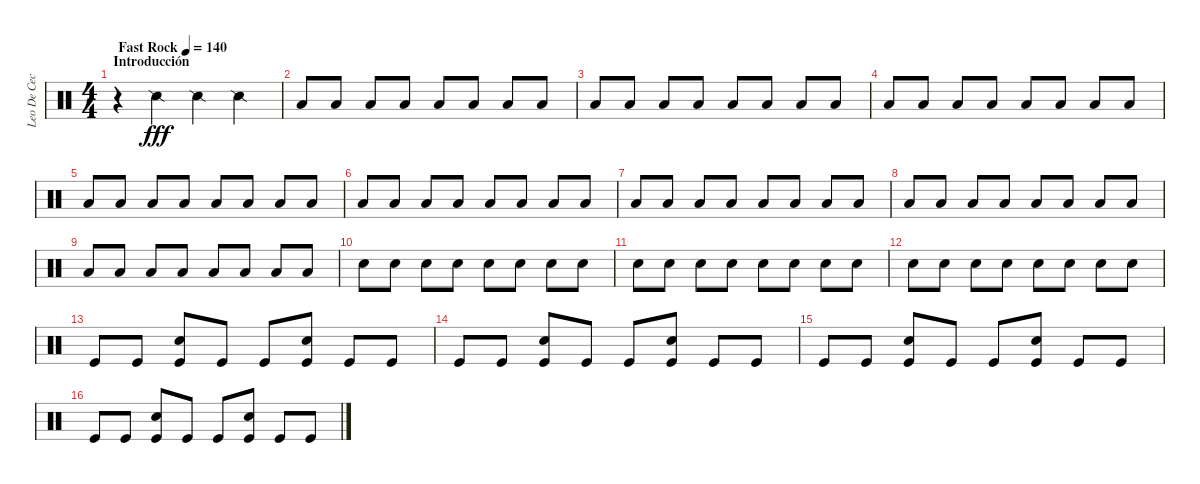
\track ("Leo De Cecco" "Leo De Cec") {instrument percussion}
\staff {score}
\articulation defaults
\ts (4 4)
\section ("" "Introducción")
\tempo (140 "Fast Rock")
\clef neutral
\ks c
r.4{dy fff} "Snare (side stick) 2".4 "Snare (side stick) 2".4 "Snare (side stick) 2".4 |
"Low Tom (hit)".8 "Low Tom (hit)".8 "Low Tom (hit)".8 "Low Tom (hit)".8 "Low Tom (hit)".8 "Low Tom (hit)".8 "Low Tom (hit)".8 "Low Tom (hit)".8 |
"Low Tom (hit)".8 "Low Tom (hit)".8 "Low Tom (hit)".8 "Low Tom (hit)".8 "Low Tom (hit)".8 "Low Tom (hit)".8 "Low Tom (hit)".8 "Low Tom (hit)".8 |
"Low Tom (hit)".8 "Low Tom (hit)".8 "Low Tom (hit)".8 "Low Tom (hit)".8 "Low Tom (hit)".8 "Low Tom (hit)".8 "Low Tom (hit)".8 "Low Tom (hit)".8 |
"Low Tom (hit)".8 "Low Tom (hit)".8 "Low Tom (hit)".8 "Low Tom (hit)".8 "Low Tom (hit)".8 "Low Tom (hit)".8 "Low Tom (hit)".8 "Low Tom (hit)".8 |
"Low Tom (hit)".8 "Low Tom (hit)".8 "Low Tom (hit)".8 "Low Tom (hit)".8 "Low Tom (hit)".8 "Low Tom (hit)".8 "Low Tom (hit)".8 "Low Tom (hit)".8 |
"Low Tom (hit)".8 "Low Tom (hit)".8 "Low Tom (hit)".8 "Low Tom (hit)".8 "Low Tom (hit)".8 "Low Tom (hit)".8 "Low Tom (hit)".8 "Low Tom (hit)".8 |
"Low Tom (hit)".8 "Low Tom (hit)".8 "Low Tom (hit)".8 "Low Tom (hit)".8 "Low Tom (hit)".8 "Low Tom (hit)".8 "Low Tom (hit)".8 "Low Tom (hit)".8 |
"Low Tom (hit)".8 "Low Tom (hit)".8 "Low Tom (hit)".8 "Low Tom (hit)".8 "Low Tom (hit)".8 "Low Tom (hit)".8 "Low Tom (hit)".8 "Low Tom (hit)".8 |
"Snare (hit) 2".8 "Snare (hit) 2".8 "Snare (hit) 2".8 "Snare (hit) 2".8 "Snare (hit) 2".8 "Snare (hit) 2".8 "Snare (hit) 2".8 "Snare (hit) 2".8 |
"Snare (hit) 2".8 "Snare (hit) 2".8 "Snare (hit) 2".8 "Snare (hit) 2".8 "Snare (hit) 2".8 "Snare (hit) 2".8 "Snare (hit) 2".8 "Snare (hit) 2".8 |
"Snare (hit) 2".8 "Snare (hit) 2".8 "Snare (hit) 2".8 "Snare (hit) 2".8 "Snare (hit) 2".8 "Snare (hit) 2".8 "Snare (hit) 2".8 "Snare (hit) 2".8 |
"Kick (hit)".8 "Kick (hit)".8 ("Snare (hit) 2" "Kick (hit)").8 "Kick (hit)".8 "Kick (hit)".8 ("Snare (hit) 2" "Kick (hit)").8 "Kick (hit)".8 "Kick (hit)".8 |
"Kick (hit)".8 "Kick (hit)".8 ("Snare (hit) 2" "Kick (hit)").8 "Kick (hit)".8 "Kick (hit)".8 ("Snare (hit) 2" "Kick (hit)").8 "Kick (hit)".8 "Kick (hit)".8 |
"Kick (hit)".8 "Kick (hit)".8 ("Snare (hit) 2" "Kick (hit)").8 "Kick (hit)".8 "Kick (hit)".8 ("Snare (hit) 2" "Kick (hit)").8 "Kick (hit)".8 "Kick (hit)".8 |
"Kick (hit)".8 "Kick (hit)".8 ("Snare (hit) 2" "Kick (hit)").8 "Kick (hit)".8 "Kick (hit)".8 ("Snare (hit) 2" "Kick (hit)").8 "Kick (hit)".8 "Kick (hit)".8
